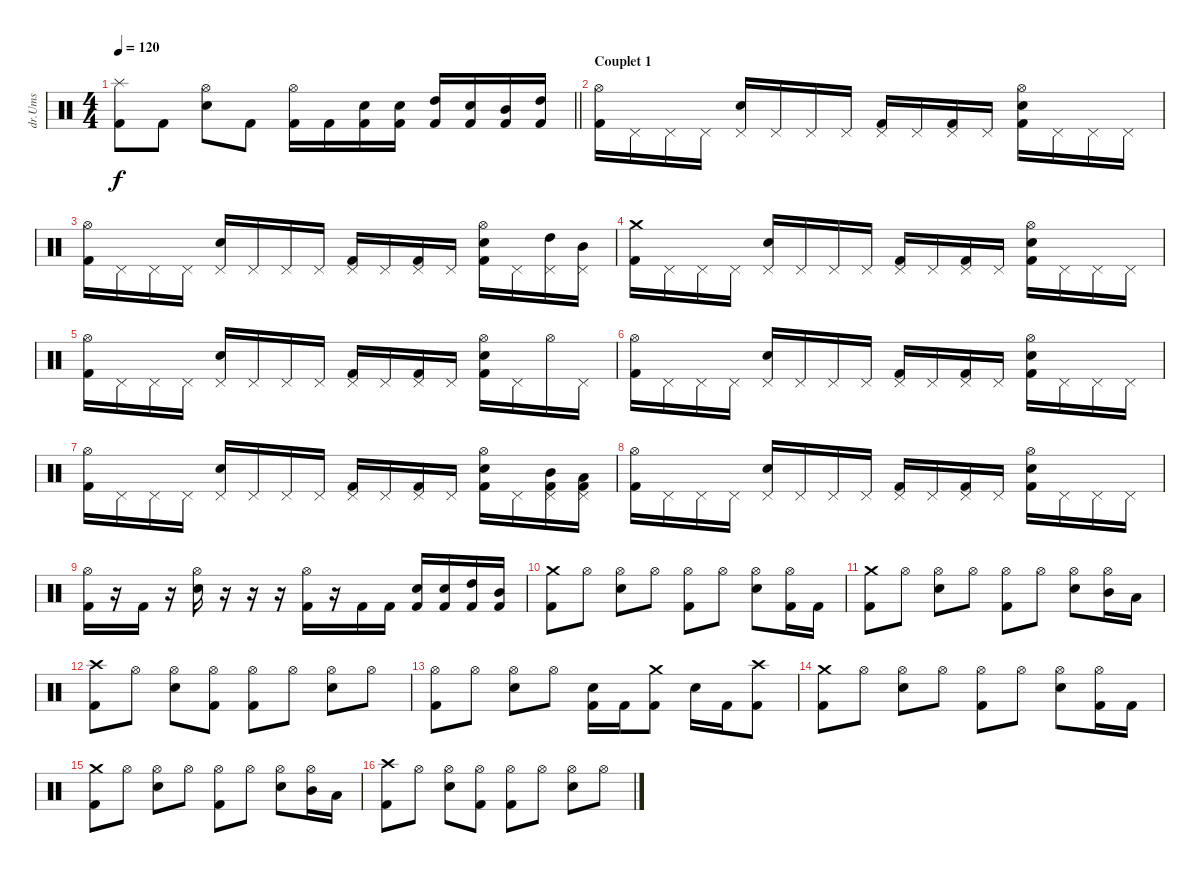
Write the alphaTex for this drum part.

\track ("dr.Ums" "dr.Ums") {instrument percussion}
\staff {score}
\articulation defaults
\ts (4 4)
\tempo 120
\clef neutral
\barLineRight lightlight
\ks c
("Kick (hit) 2" "Splash (hit)").8{dy f} "Kick (hit) 2".8 ("Snare (hit) 2" "Hi-Hat (open)").8 "Kick (hit) 2".8 ("Kick (hit) 2" "Hi-Hat (open)").16 "Kick (hit) 2".16 ("Snare (hit) 2" "Kick (hit) 2").16 ("Snare (hit) 2" "Kick (hit) 2").16 ("High Tom (hit)" "Kick (hit) 2").16 ("Snare (hit) 2" "Kick (hit) 2").16 ("Mid Tom (hit)" "Kick (hit) 2").16 ("High Tom (hit)" "Kick (hit) 2").16 |
\section ("" "Couplet 1")
("Hi-Hat (open)" "Kick (hit) 2").16 "Pedal Hi-Hat (hit)".16 "Pedal Hi-Hat (hit)".16 "Pedal Hi-Hat (hit)".16 ("Pedal Hi-Hat (hit)" "Snare (hit) 2").16 "Pedal Hi-Hat (hit)".16 "Pedal Hi-Hat (hit)".16 "Pedal Hi-Hat (hit)".16 ("Pedal Hi-Hat (hit)" "Kick (hit) 2").16 "Pedal Hi-Hat (hit)".16 ("Pedal Hi-Hat (hit)" "Kick (hit) 2").16 "Pedal Hi-Hat (hit)".16 ("Hi-Hat (open)" "Snare (hit) 2" "Kick (hit) 2").16 "Pedal Hi-Hat (hit)".16 "Pedal Hi-Hat (hit)".16 "Pedal Hi-Hat (hit)".16 |
("Hi-Hat (open)" "Kick (hit) 2").16 "Pedal Hi-Hat (hit)".16 "Pedal Hi-Hat (hit)".16 "Pedal Hi-Hat (hit)".16 ("Pedal Hi-Hat (hit)" "Snare (hit) 2").16 "Pedal Hi-Hat (hit)".16 "Pedal Hi-Hat (hit)".16 "Pedal Hi-Hat (hit)".16 ("Pedal Hi-Hat (hit)" "Kick (hit) 2").16 "Pedal Hi-Hat (hit)".16 ("Pedal Hi-Hat (hit)" "Kick (hit) 2").16 "Pedal Hi-Hat (hit)".16 ("Hi-Hat (open)" "Snare (hit) 2" "Kick (hit) 2").16 "Pedal Hi-Hat (hit)".16 ("Pedal Hi-Hat (hit)" "High Tom (hit)").16 ("Pedal Hi-Hat (hit)" "Mid Tom (hit)").16 |
("Crash medium (hit)" "Kick (hit) 2").16 "Pedal Hi-Hat (hit)".16 "Pedal Hi-Hat (hit)".16 "Pedal Hi-Hat (hit)".16 ("Pedal Hi-Hat (hit)" "Snare (hit) 2").16 "Pedal Hi-Hat (hit)".16 "Pedal Hi-Hat (hit)".16 "Pedal Hi-Hat (hit)".16 ("Pedal Hi-Hat (hit)" "Kick (hit) 2").16 "Pedal Hi-Hat (hit)".16 ("Pedal Hi-Hat (hit)" "Kick (hit) 2").16 "Pedal Hi-Hat (hit)".16 ("Hi-Hat (open)" "Snare (hit) 2" "Kick (hit) 2").16 "Pedal Hi-Hat (hit)".16 "Pedal Hi-Hat (hit)".16 "Pedal Hi-Hat (hit)".16 |
("Hi-Hat (open)" "Kick (hit) 2").16 "Pedal Hi-Hat (hit)".16 "Pedal Hi-Hat (hit)".16 "Pedal Hi-Hat (hit)".16 ("Pedal Hi-Hat (hit)" "Snare (hit) 2").16 "Pedal Hi-Hat (hit)".16 "Pedal Hi-Hat (hit)".16 "Pedal Hi-Hat (hit)".16 ("Pedal Hi-Hat (hit)" "Kick (hit) 2").16 "Pedal Hi-Hat (hit)".16 ("Pedal Hi-Hat (hit)" "Kick (hit) 2").16 "Pedal Hi-Hat (hit)".16 ("Hi-Hat (open)" "Snare (hit) 2" "Kick (hit) 2").16 "Pedal Hi-Hat (hit)".16 "Hi-Hat (open)".16 "Pedal Hi-Hat (hit)".16 |
("Hi-Hat (open)" "Kick (hit) 2").16 "Pedal Hi-Hat (hit)".16 "Pedal Hi-Hat (hit)".16 "Pedal Hi-Hat (hit)".16 ("Pedal Hi-Hat (hit)" "Snare (hit) 2").16 "Pedal Hi-Hat (hit)".16 "Pedal Hi-Hat (hit)".16 "Pedal Hi-Hat (hit)".16 ("Pedal Hi-Hat (hit)" "Kick (hit) 2").16 "Pedal Hi-Hat (hit)".16 ("Pedal Hi-Hat (hit)" "Kick (hit) 2").16 "Pedal Hi-Hat (hit)".16 ("Hi-Hat (open)" "Snare (hit) 2" "Kick (hit) 2").16 "Pedal Hi-Hat (hit)".16 "Pedal Hi-Hat (hit)".16 "Pedal Hi-Hat (hit)".16 |
("Hi-Hat (open)" "Kick (hit) 2").16 "Pedal Hi-Hat (hit)".16 "Pedal Hi-Hat (hit)".16 "Pedal Hi-Hat (hit)".16 ("Pedal Hi-Hat (hit)" "Snare (hit) 2").16 "Pedal Hi-Hat (hit)".16 "Pedal Hi-Hat (hit)".16 "Pedal Hi-Hat (hit)".16 ("Pedal Hi-Hat (hit)" "Kick (hit) 2").16 "Pedal Hi-Hat (hit)".16 ("Pedal Hi-Hat (hit)" "Kick (hit) 2").16 "Pedal Hi-Hat (hit)".16 ("Hi-Hat (open)" "Snare (hit) 2" "Kick (hit) 2").16 "Pedal Hi-Hat (hit)".16 ("Pedal Hi-Hat (hit)" "Mid Tom (hit)" "Kick (hit) 2").16 ("Pedal Hi-Hat (hit)" "Low Tom (hit)" "Kick (hit) 2").16 |
("Hi-Hat (open)" "Kick (hit) 2").16 "Pedal Hi-Hat (hit)".16 "Pedal Hi-Hat (hit)".16 "Pedal Hi-Hat (hit)".16 ("Pedal Hi-Hat (hit)" "Snare (hit) 2").16 "Pedal Hi-Hat (hit)".16 "Pedal Hi-Hat (hit)".16 "Pedal Hi-Hat (hit)".16 ("Pedal Hi-Hat (hit)" "Kick (hit) 2").16 "Pedal Hi-Hat (hit)".16 ("Pedal Hi-Hat (hit)" "Kick (hit) 2").16 "Pedal Hi-Hat (hit)".16 ("Hi-Hat (open)" "Snare (hit) 2" "Kick (hit) 2").16 "Pedal Hi-Hat (hit)".16 "Pedal Hi-Hat (hit)".16 "Pedal Hi-Hat (hit)".16 |
("Hi-Hat (open)" "Kick (hit) 2").16 r.16 "Kick (hit) 2".16 r.16 ("Hi-Hat (open)" "Snare (hit) 2").16 r.16 r.16 r.16 ("Hi-Hat (open)" "Kick (hit) 2").16 r.16 "Kick (hit) 2".16 "Kick (hit) 2".16 ("Snare (hit) 2" "Kick (hit) 2").16 ("Snare (hit) 2" "Kick (hit) 2").16 ("High Tom (hit)" "Kick (hit) 2").16 ("Mid Tom (hit)" "Kick (hit) 2").16 |
("Crash medium (hit)" "Kick (hit) 2").8 "Hi-Hat (open)".8 ("Hi-Hat (open)" "Snare (hit) 2").8 "Hi-Hat (open)".8 ("Hi-Hat (open)" "Kick (hit) 2").8 "Hi-Hat (open)".8 ("Hi-Hat (open)" "Snare (hit) 2").8 ("Hi-Hat (open)" "Kick (hit) 2").16 "Kick (hit) 2".16 |
("Crash medium (hit)" "Kick (hit) 2").8 "Hi-Hat (open)".8 ("Hi-Hat (open)" "Snare (hit) 2").8 "Hi-Hat (open)".8 ("Hi-Hat (open)" "Kick (hit) 2").8 "Hi-Hat (open)".8 ("Hi-Hat (open)" "Snare (hit) 2").8 ("Hi-Hat (open)" "Mid Tom (hit)").16 "Low Tom (hit)".16 |
("Crash high (hit)" "Kick (hit) 2").8 "Hi-Hat (open)".8 ("Hi-Hat (open)" "Snare (hit) 2").8 ("Hi-Hat (open)" "Kick (hit) 2").8 ("Hi-Hat (open)" "Kick (hit) 2").8 "Hi-Hat (open)".8 ("Hi-Hat (open)" "Snare (hit) 2").8 "Hi-Hat (open)".8 |
("Hi-Hat (open)" "Kick (hit) 2").8 "Hi-Hat (open)".8 ("Hi-Hat (open)" "Snare (hit) 2").8 "Hi-Hat (open)".8 ("Snare (hit) 2" "Kick (hit) 2").16 "Kick (hit) 2".16 ("Crash medium (hit)" "Kick (hit) 2").8 "Snare (hit) 2".16 "Kick (hit) 2".16 ("Kick (hit) 2" "Crash high (hit)").8 |
("Crash medium (hit)" "Kick (hit) 2").8 "Hi-Hat (open)".8 ("Hi-Hat (open)" "Snare (hit) 2").8 "Hi-Hat (open)".8 ("Hi-Hat (open)" "Kick (hit) 2").8 "Hi-Hat (open)".8 ("Hi-Hat (open)" "Snare (hit) 2").8 ("Hi-Hat (open)" "Kick (hit) 2").16 "Kick (hit) 2".16 |
("Crash medium (hit)" "Kick (hit) 2").8 "Hi-Hat (open)".8 ("Hi-Hat (open)" "Snare (hit) 2").8 "Hi-Hat (open)".8 ("Hi-Hat (open)" "Kick (hit) 2").8 "Hi-Hat (open)".8 ("Hi-Hat (open)" "Snare (hit) 2").8 ("Hi-Hat (open)" "Mid Tom (hit)").16 "Low Tom (hit)".16 |
("Crash high (hit)" "Kick (hit) 2").8 "Hi-Hat (open)".8 ("Hi-Hat (open)" "Snare (hit) 2").8 ("Hi-Hat (open)" "Kick (hit) 2").8 ("Hi-Hat (open)" "Kick (hit) 2").8 "Hi-Hat (open)".8 ("Hi-Hat (open)" "Snare (hit) 2").8 "Hi-Hat (open)".8
